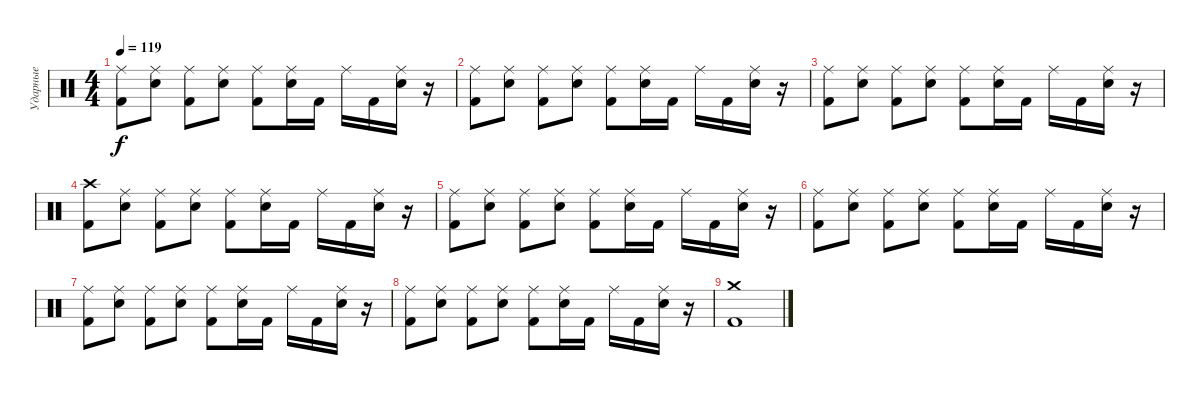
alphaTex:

\track ("Ударные" "Ударные") {instrument percussion}
\staff {score}
\articulation defaults
\ts (4 4)
\tempo 119
\clef neutral
\ks c
("Ride (middle)" "Kick (hit) 2").8{dy f} ("Ride (middle)" "Electric Snare (hit)").8 ("Ride (middle)" "Kick (hit) 2").8 ("Ride (middle)" "Electric Snare (hit)").8 ("Ride (middle)" "Kick (hit) 2").8 ("Ride (middle)" "Electric Snare (hit)").16 "Kick (hit) 2".16 "Ride (middle)".16 "Kick (hit) 2".16 ("Ride (middle)" "Electric Snare (hit)").16 r.16 |
("Ride (middle)" "Kick (hit) 2").8 ("Ride (middle)" "Electric Snare (hit)").8 ("Ride (middle)" "Kick (hit) 2").8 ("Ride (middle)" "Electric Snare (hit)").8 ("Ride (middle)" "Kick (hit) 2").8 ("Ride (middle)" "Electric Snare (hit)").16 "Kick (hit) 2".16 "Ride (middle)".16 "Kick (hit) 2".16 ("Ride (middle)" "Electric Snare (hit)").16 r.16 |
("Ride (middle)" "Kick (hit) 2").8 ("Ride (middle)" "Electric Snare (hit)").8 ("Ride (middle)" "Kick (hit) 2").8 ("Ride (middle)" "Electric Snare (hit)").8 ("Ride (middle)" "Kick (hit) 2").8 ("Ride (middle)" "Electric Snare (hit)").16 "Kick (hit) 2".16 "Ride (middle)".16 "Kick (hit) 2".16 ("Ride (middle)" "Electric Snare (hit)").16 r.16 |
("Crash high (hit)" "Kick (hit) 2").8 ("Ride (middle)" "Electric Snare (hit)").8 ("Ride (middle)" "Kick (hit) 2").8 ("Ride (middle)" "Electric Snare (hit)").8 ("Ride (middle)" "Kick (hit) 2").8 ("Ride (middle)" "Electric Snare (hit)").16 "Kick (hit) 2".16 "Ride (middle)".16 "Kick (hit) 2".16 ("Ride (middle)" "Electric Snare (hit)").16 r.16 |
("Ride (middle)" "Kick (hit) 2").8 ("Ride (middle)" "Electric Snare (hit)").8 ("Ride (middle)" "Kick (hit) 2").8 ("Ride (middle)" "Electric Snare (hit)").8 ("Ride (middle)" "Kick (hit) 2").8 ("Ride (middle)" "Electric Snare (hit)").16 "Kick (hit) 2".16 "Ride (middle)".16 "Kick (hit) 2".16 ("Ride (middle)" "Electric Snare (hit)").16 r.16 |
("Ride (middle)" "Kick (hit) 2").8 ("Ride (middle)" "Electric Snare (hit)").8 ("Ride (middle)" "Kick (hit) 2").8 ("Ride (middle)" "Electric Snare (hit)").8 ("Ride (middle)" "Kick (hit) 2").8 ("Ride (middle)" "Electric Snare (hit)").16 "Kick (hit) 2".16 "Ride (middle)".16 "Kick (hit) 2".16 ("Ride (middle)" "Electric Snare (hit)").16 r.16 |
("Ride (middle)" "Kick (hit) 2").8 ("Ride (middle)" "Electric Snare (hit)").8 ("Ride (middle)" "Kick (hit) 2").8 ("Ride (middle)" "Electric Snare (hit)").8 ("Ride (middle)" "Kick (hit) 2").8 ("Ride (middle)" "Electric Snare (hit)").16 "Kick (hit) 2".16 "Ride (middle)".16 "Kick (hit) 2".16 ("Ride (middle)" "Electric Snare (hit)").16 r.16 |
("Ride (middle)" "Kick (hit) 2").8 ("Ride (middle)" "Electric Snare (hit)").8 ("Ride (middle)" "Kick (hit) 2").8 ("Ride (middle)" "Electric Snare (hit)").8 ("Ride (middle)" "Kick (hit) 2").8 ("Ride (middle)" "Electric Snare (hit)").16 "Kick (hit) 2".16 "Ride (middle)".16 "Kick (hit) 2".16 ("Ride (middle)" "Electric Snare (hit)").16 r.16 |
("Kick (hit) 2" "Crash medium (hit)").1
